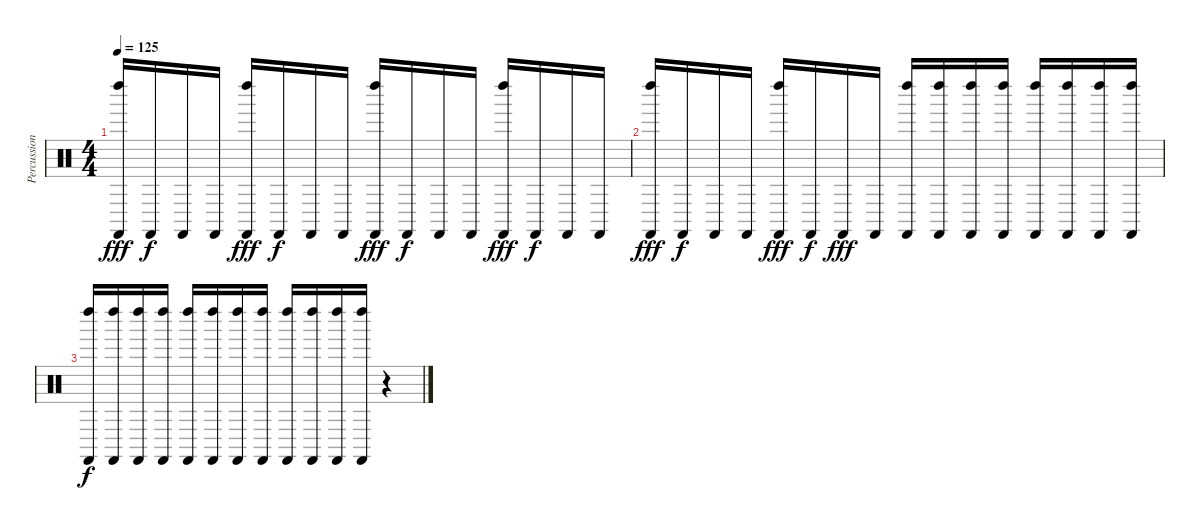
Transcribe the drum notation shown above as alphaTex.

\track ("Percussion Boris" "Percussion") {instrument percussion}
\staff {score}
\articulation defaults
\ts (4 4)
\tempo 125
\clef neutral
\ks c
("Castanets (hit)" "Left Maraca (hit)").16{dy fff} "Castanets (hit)".16{dy f} "Castanets (hit)".16 "Castanets (hit)".16 ("Castanets (hit)" "Left Maraca (hit)").16{dy fff} "Castanets (hit)".16{dy f} "Castanets (hit)".16 "Castanets (hit)".16 ("Castanets (hit)" "Left Maraca (hit)").16{dy fff} "Castanets (hit)".16{dy f} "Castanets (hit)".16 "Castanets (hit)".16 ("Castanets (hit)" "Left Maraca (hit)").16{dy fff} "Castanets (hit)".16{dy f} "Castanets (hit)".16 "Castanets (hit)".16 |
("Castanets (hit)" "Left Maraca (hit)").16{dy fff} "Castanets (hit)".16{dy f} "Castanets (hit)".16 "Castanets (hit)".16 ("Castanets (hit)" "Left Maraca (hit)").16{dy fff} "Castanets (hit)".16{dy f} "Castanets (hit)".16{dy fff} "Castanets (hit)".16 ("Castanets (hit)" "Left Maraca (hit)").16{volume 3} ("Castanets (hit)" "Left Maraca (hit)").16 ("Castanets (hit)" "Left Maraca (hit)").16 ("Castanets (hit)" "Left Maraca (hit)").16 ("Castanets (hit)" "Left Maraca (hit)").16 ("Castanets (hit)" "Left Maraca (hit)").16 ("Castanets (hit)" "Left Maraca (hit)").16 ("Castanets (hit)" "Left Maraca (hit)").16 |
("Castanets (hit)" "Left Maraca (hit)").16{dy f} ("Castanets (hit)" "Left Maraca (hit)").16 ("Castanets (hit)" "Left Maraca (hit)").16 ("Castanets (hit)" "Left Maraca (hit)").16 ("Castanets (hit)" "Left Maraca (hit)").16 ("Castanets (hit)" "Left Maraca (hit)").16 ("Castanets (hit)" "Left Maraca (hit)").16 ("Castanets (hit)" "Left Maraca (hit)").16 ("Castanets (hit)" "Left Maraca (hit)").16 ("Castanets (hit)" "Left Maraca (hit)").16 ("Castanets (hit)" "Left Maraca (hit)").16 ("Castanets (hit)" "Left Maraca (hit)").16 r.4
